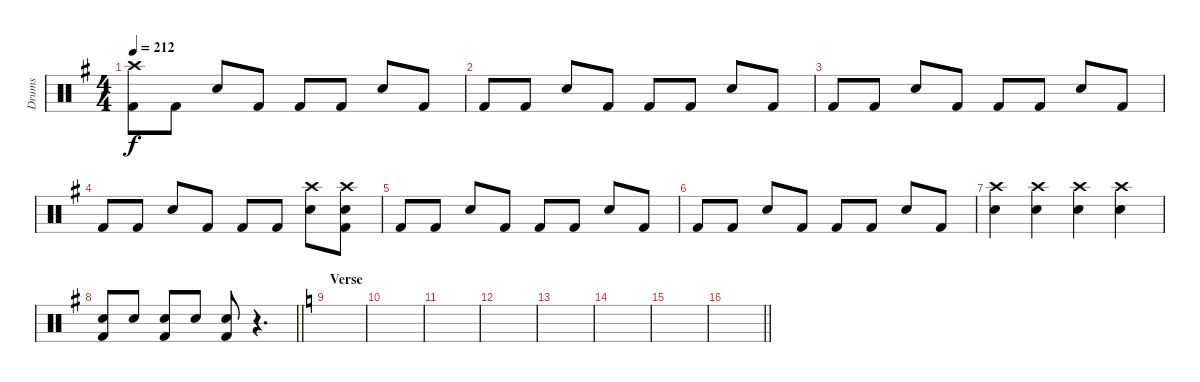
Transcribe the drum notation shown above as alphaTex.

\track ("Drums" "Drums") {instrument percussion}
\staff {score}
\articulation defaults
\ts (4 4)
\tempo 212
\clef neutral
\ks eminor
("Crash high (hit)" "Kick (hit) 2").8{dy f} "Kick (hit) 2".8 "Snare (hit) 2".8 "Kick (hit) 2".8 "Kick (hit) 2".8 "Kick (hit) 2".8 "Snare (hit) 2".8 "Kick (hit) 2".8 |
"Kick (hit) 2".8 "Kick (hit) 2".8 "Snare (hit) 2".8 "Kick (hit) 2".8 "Kick (hit) 2".8 "Kick (hit) 2".8 "Snare (hit) 2".8 "Kick (hit) 2".8 |
"Kick (hit) 2".8 "Kick (hit) 2".8 "Snare (hit) 2".8 "Kick (hit) 2".8 "Kick (hit) 2".8 "Kick (hit) 2".8 "Snare (hit) 2".8 "Kick (hit) 2".8 |
"Kick (hit) 2".8 "Kick (hit) 2".8 "Snare (hit) 2".8 "Kick (hit) 2".8 "Kick (hit) 2".8 "Kick (hit) 2".8 ("Crash high (hit)" "Snare (hit) 2").8 ("Crash high (hit)" "Snare (hit) 2" "Kick (hit) 2").8 |
"Kick (hit) 2".8 "Kick (hit) 2".8 "Snare (hit) 2".8 "Kick (hit) 2".8 "Kick (hit) 2".8 "Kick (hit) 2".8 "Snare (hit) 2".8 "Kick (hit) 2".8 |
"Kick (hit) 2".8 "Kick (hit) 2".8 "Snare (hit) 2".8 "Kick (hit) 2".8 "Kick (hit) 2".8 "Kick (hit) 2".8 "Snare (hit) 2".8 "Kick (hit) 2".8 |
("Crash high (hit)" "Snare (hit) 2").4 ("Crash high (hit)" "Snare (hit) 2").4 ("Crash high (hit)" "Snare (hit) 2").4 ("Crash high (hit)" "Snare (hit) 2").4 |
\barLineRight lightlight
("Snare (hit) 2" "Kick (hit) 2").8 "Snare (hit) 2".8 ("Snare (hit) 2" "Kick (hit) 2").8 "Snare (hit) 2".8 ("Snare (hit) 2" "Kick (hit) 2").8 r.4{d} |
\section ("" "Verse")
\ks c
|
|
|
|
|
|
|
\barLineRight lightlight
